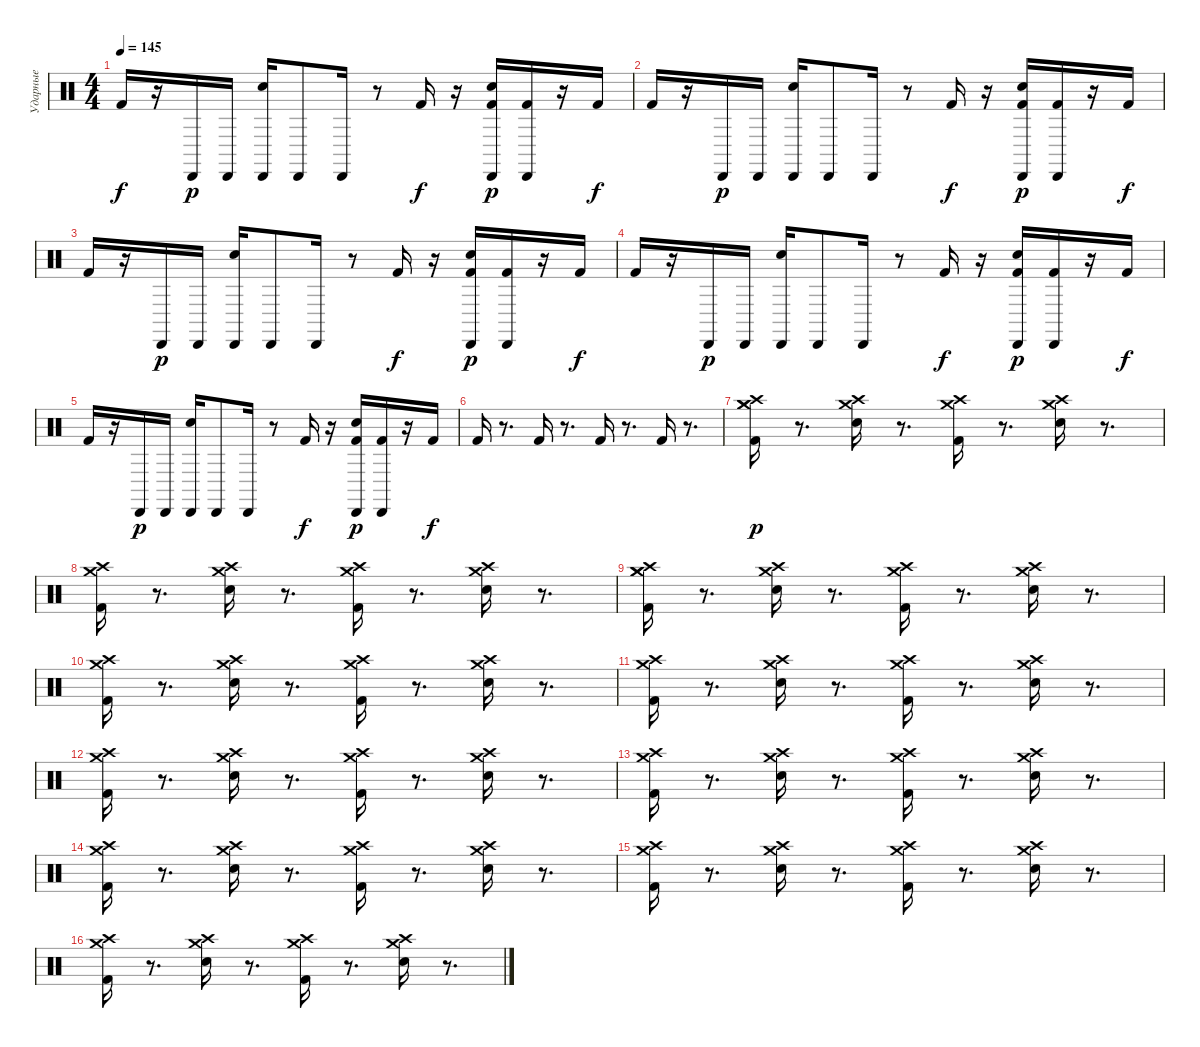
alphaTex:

\track ("Ударные" "Ударные") {instrument percussion}
\staff {score}
\articulation defaults
\ts (4 4)
\tempo 145
\clef neutral
\ks c "Kick (hit) 2".16{dy f}
r.16 "Cabasa (hit)".16{dy p} "Cabasa (hit)".16 ("Electric Snare (hit)" "Cabasa (hit)").16 "Cabasa (hit)".8 "Cabasa (hit)".16 r.8 "Kick (hit) 2".16{dy f} r.16 ("Kick (hit) 2" "Electric Snare (hit)" "Cabasa (hit)").16{dy p} ("Kick (hit) 2" "Cabasa (hit)").16 r.16 "Kick (hit) 2".16{dy f} |
"Kick (hit) 2".16 r.16 "Cabasa (hit)".16{dy p} "Cabasa (hit)".16 ("Electric Snare (hit)" "Cabasa (hit)").16 "Cabasa (hit)".8 "Cabasa (hit)".16 r.8 "Kick (hit) 2".16{dy f} r.16 ("Kick (hit) 2" "Electric Snare (hit)" "Cabasa (hit)").16{dy p} ("Kick (hit) 2" "Cabasa (hit)").16 r.16 "Kick (hit) 2".16{dy f} |
"Kick (hit) 2".16 r.16 "Cabasa (hit)".16{dy p} "Cabasa (hit)".16 ("Electric Snare (hit)" "Cabasa (hit)").16 "Cabasa (hit)".8 "Cabasa (hit)".16 r.8 "Kick (hit) 2".16{dy f} r.16 ("Kick (hit) 2" "Electric Snare (hit)" "Cabasa (hit)").16{dy p} ("Kick (hit) 2" "Cabasa (hit)").16 r.16 "Kick (hit) 2".16{dy f} |
"Kick (hit) 2".16 r.16 "Cabasa (hit)".16{dy p} "Cabasa (hit)".16 ("Electric Snare (hit)" "Cabasa (hit)").16 "Cabasa (hit)".8 "Cabasa (hit)".16 r.8 "Kick (hit) 2".16{dy f} r.16 ("Kick (hit) 2" "Electric Snare (hit)" "Cabasa (hit)").16{dy p} ("Kick (hit) 2" "Cabasa (hit)").16 r.16 "Kick (hit) 2".16{dy f} |
"Kick (hit) 2".16 r.16 "Cabasa (hit)".16{dy p} "Cabasa (hit)".16 ("Electric Snare (hit)" "Cabasa (hit)").16 "Cabasa (hit)".8 "Cabasa (hit)".16 r.8 "Kick (hit) 2".16{dy f} r.16 ("Kick (hit) 2" "Electric Snare (hit)" "Cabasa (hit)").16{dy p} ("Kick (hit) 2" "Cabasa (hit)").16 r.16 "Kick (hit) 2".16{dy f} |
"Kick (hit) 2".16 r.8{d} "Kick (hit) 2".16 r.8{d} "Kick (hit) 2".16 r.8{d} "Kick (hit) 2".16 r.8{d} |
("Kick (hit) 2" "Crash high (hit)" "Crash medium (hit)" "Crash medium (hit)").16{dy p} r.8{d} ("Crash high (hit)" "Crash medium (hit)" "Electric Snare (hit)").16 r.8{d} ("Crash high (hit)" "Crash medium (hit)" "Kick (hit) 2").16 r.8{d} ("Crash high (hit)" "Crash medium (hit)" "Electric Snare (hit)").16 r.8{d} |
("Kick (hit) 2" "Crash high (hit)" "Crash medium (hit)").16 r.8{d} ("Crash high (hit)" "Crash medium (hit)" "Electric Snare (hit)").16 r.8{d} ("Crash high (hit)" "Crash medium (hit)" "Kick (hit) 2").16 r.8{d} ("Crash high (hit)" "Crash medium (hit)" "Electric Snare (hit)").16 r.8{d} |
("Kick (hit) 2" "Crash high (hit)" "Crash medium (hit)" "Crash medium (hit)").16 r.8{d} ("Crash high (hit)" "Crash medium (hit)" "Electric Snare (hit)").16 r.8{d} ("Crash high (hit)" "Crash medium (hit)" "Kick (hit) 2").16 r.8{d} ("Crash high (hit)" "Crash medium (hit)" "Electric Snare (hit)").16 r.8{d} |
("Kick (hit) 2" "Crash high (hit)" "Crash medium (hit)").16 r.8{d} ("Crash high (hit)" "Crash medium (hit)" "Electric Snare (hit)").16 r.8{d} ("Crash high (hit)" "Crash medium (hit)" "Kick (hit) 2").16 r.8{d} ("Crash high (hit)" "Crash medium (hit)" "Electric Snare (hit)").16 r.8{d} |
("Kick (hit) 2" "Crash high (hit)" "Crash medium (hit)").16 r.8{d} ("Crash high (hit)" "Crash medium (hit)" "Electric Snare (hit)").16 r.8{d} ("Crash high (hit)" "Crash medium (hit)" "Kick (hit) 2").16 r.8{d} ("Crash high (hit)" "Crash medium (hit)" "Electric Snare (hit)").16 r.8{d} |
("Kick (hit) 2" "Crash high (hit)" "Crash medium (hit)").16 r.8{d} ("Crash high (hit)" "Crash medium (hit)" "Electric Snare (hit)").16 r.8{d} ("Crash high (hit)" "Crash medium (hit)" "Kick (hit) 2").16 r.8{d} ("Crash high (hit)" "Crash medium (hit)" "Electric Snare (hit)").16 r.8{d} |
("Kick (hit) 2" "Crash high (hit)" "Crash medium (hit)").16 r.8{d} ("Crash high (hit)" "Crash medium (hit)" "Electric Snare (hit)").16 r.8{d} ("Crash high (hit)" "Crash medium (hit)" "Kick (hit) 2").16 r.8{d} ("Crash high (hit)" "Crash medium (hit)" "Electric Snare (hit)").16 r.8{d} |
("Kick (hit) 2" "Crash high (hit)" "Crash medium (hit)").16 r.8{d} ("Crash high (hit)" "Crash medium (hit)" "Electric Snare (hit)").16 r.8{d} ("Crash high (hit)" "Crash medium (hit)" "Kick (hit) 2").16 r.8{d} ("Crash high (hit)" "Crash medium (hit)" "Electric Snare (hit)").16 r.8{d} |
("Kick (hit) 2" "Crash high (hit)" "Crash medium (hit)").16 r.8{d} ("Crash high (hit)" "Crash medium (hit)" "Electric Snare (hit)").16 r.8{d} ("Crash high (hit)" "Crash medium (hit)" "Kick (hit) 2").16 r.8{d} ("Crash high (hit)" "Crash medium (hit)" "Electric Snare (hit)").16 r.8{d} |
("Kick (hit) 2" "Crash high (hit)" "Crash medium (hit)").16 r.8{d} ("Crash high (hit)" "Crash medium (hit)" "Electric Snare (hit)").16 r.8{d} ("Crash high (hit)" "Crash medium (hit)" "Kick (hit) 2").16 r.8{d} ("Crash high (hit)" "Crash medium (hit)" "Electric Snare (hit)").16 r.8{d}
